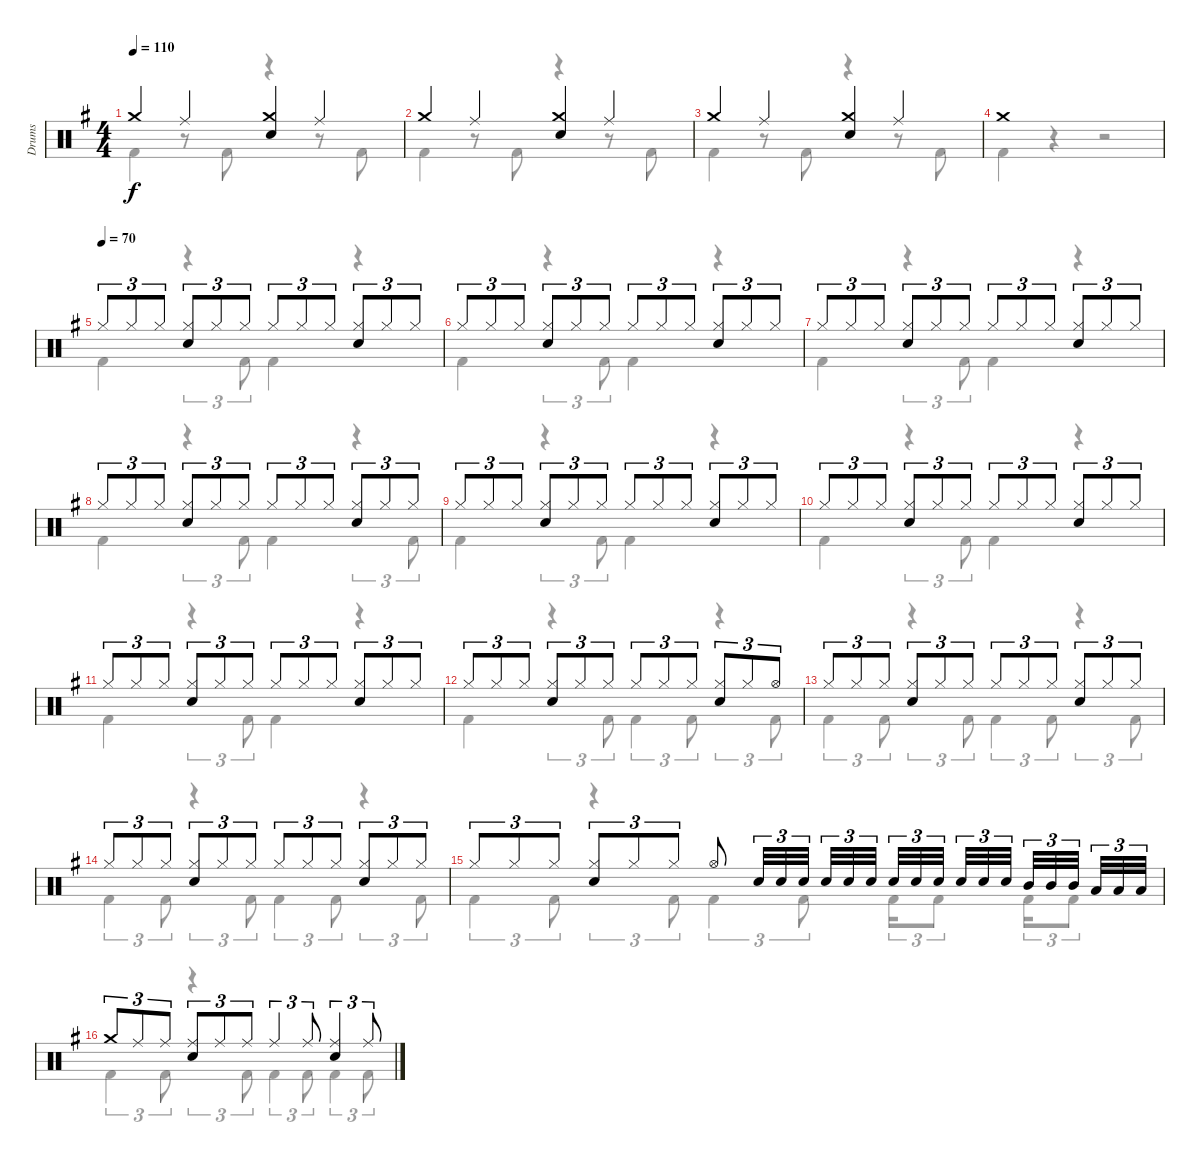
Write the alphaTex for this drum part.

\track ("Drums" "Drums") {instrument percussion}
\staff {score}
\articulation defaults
\voice
\ts (4 4)
\tempo 110
\clef neutral
\ks g "Crash medium (hit)".4{dy f} "Ride (middle)".4
("Crash medium (hit)" "Snare (hit) 2").4 "Ride (middle)".4 |
"Crash medium (hit)".4 "Ride (middle)".4 ("Crash medium (hit)" "Snare (hit) 2").4 "Ride (middle)".4 |
"Crash medium (hit)".4 "Ride (middle)".4 ("Crash medium (hit)" "Snare (hit) 2").4 "Ride (middle)".4 |
"Crash medium (hit)".1 |
\tempo (70)
"Hi-Hat (closed)".8{tu (3 2)} "Hi-Hat (closed)".8{tu (3 2)} "Hi-Hat (closed)".8{tu (3 2)} ("Hi-Hat (closed)" "Snare (hit) 2").8{tu (3 2)} "Hi-Hat (closed)".8{tu (3 2)} "Hi-Hat (closed)".8{tu (3 2)} "Hi-Hat (closed)".8{tu (3 2)} "Hi-Hat (closed)".8{tu (3 2)} "Hi-Hat (closed)".8{tu (3 2)} ("Hi-Hat (closed)" "Snare (hit) 2").8{tu (3 2)} "Hi-Hat (closed)".8{tu (3 2)} "Hi-Hat (closed)".8{tu (3 2)} |
"Hi-Hat (closed)".8{tu (3 2)} "Hi-Hat (closed)".8{tu (3 2)} "Hi-Hat (closed)".8{tu (3 2)} ("Hi-Hat (closed)" "Snare (hit) 2").8{tu (3 2)} "Hi-Hat (closed)".8{tu (3 2)} "Hi-Hat (closed)".8{tu (3 2)} "Hi-Hat (closed)".8{tu (3 2)} "Hi-Hat (closed)".8{tu (3 2)} "Hi-Hat (closed)".8{tu (3 2)} ("Hi-Hat (closed)" "Snare (hit) 2").8{tu (3 2)} "Hi-Hat (closed)".8{tu (3 2)} "Hi-Hat (closed)".8{tu (3 2)} |
"Hi-Hat (closed)".8{tu (3 2)} "Hi-Hat (closed)".8{tu (3 2)} "Hi-Hat (closed)".8{tu (3 2)} ("Hi-Hat (closed)" "Snare (hit) 2").8{tu (3 2)} "Hi-Hat (closed)".8{tu (3 2)} "Hi-Hat (closed)".8{tu (3 2)} "Hi-Hat (closed)".8{tu (3 2)} "Hi-Hat (closed)".8{tu (3 2)} "Hi-Hat (closed)".8{tu (3 2)} ("Hi-Hat (closed)" "Snare (hit) 2").8{tu (3 2)} "Hi-Hat (closed)".8{tu (3 2)} "Hi-Hat (closed)".8{tu (3 2)} |
"Hi-Hat (closed)".8{tu (3 2)} "Hi-Hat (closed)".8{tu (3 2)} "Hi-Hat (closed)".8{tu (3 2)} ("Hi-Hat (closed)" "Snare (hit) 2").8{tu (3 2)} "Hi-Hat (closed)".8{tu (3 2)} "Hi-Hat (closed)".8{tu (3 2)} "Hi-Hat (closed)".8{tu (3 2)} "Hi-Hat (closed)".8{tu (3 2)} "Hi-Hat (closed)".8{tu (3 2)} ("Hi-Hat (closed)" "Snare (hit) 2").8{tu (3 2)} "Hi-Hat (closed)".8{tu (3 2)} "Hi-Hat (closed)".8{tu (3 2)} |
"Hi-Hat (closed)".8{tu (3 2)} "Hi-Hat (closed)".8{tu (3 2)} "Hi-Hat (closed)".8{tu (3 2)} ("Hi-Hat (closed)" "Snare (hit) 2").8{tu (3 2)} "Hi-Hat (closed)".8{tu (3 2)} "Hi-Hat (closed)".8{tu (3 2)} "Hi-Hat (closed)".8{tu (3 2)} "Hi-Hat (closed)".8{tu (3 2)} "Hi-Hat (closed)".8{tu (3 2)} ("Hi-Hat (closed)" "Snare (hit) 2").8{tu (3 2)} "Hi-Hat (closed)".8{tu (3 2)} "Hi-Hat (closed)".8{tu (3 2)} |
"Hi-Hat (closed)".8{tu (3 2)} "Hi-Hat (closed)".8{tu (3 2)} "Hi-Hat (closed)".8{tu (3 2)} ("Hi-Hat (closed)" "Snare (hit) 2").8{tu (3 2)} "Hi-Hat (closed)".8{tu (3 2)} "Hi-Hat (closed)".8{tu (3 2)} "Hi-Hat (closed)".8{tu (3 2)} "Hi-Hat (closed)".8{tu (3 2)} "Hi-Hat (closed)".8{tu (3 2)} ("Hi-Hat (closed)" "Snare (hit) 2").8{tu (3 2)} "Hi-Hat (closed)".8{tu (3 2)} "Hi-Hat (closed)".8{tu (3 2)} |
"Hi-Hat (closed)".8{tu (3 2)} "Hi-Hat (closed)".8{tu (3 2)} "Hi-Hat (closed)".8{tu (3 2)} ("Hi-Hat (closed)" "Snare (hit) 2").8{tu (3 2)} "Hi-Hat (closed)".8{tu (3 2)} "Hi-Hat (closed)".8{tu (3 2)} "Hi-Hat (closed)".8{tu (3 2)} "Hi-Hat (closed)".8{tu (3 2)} "Hi-Hat (closed)".8{tu (3 2)} ("Hi-Hat (closed)" "Snare (hit) 2").8{tu (3 2)} "Hi-Hat (closed)".8{tu (3 2)} "Hi-Hat (closed)".8{tu (3 2)} |
"Hi-Hat (closed)".8{tu (3 2)} "Hi-Hat (closed)".8{tu (3 2)} "Hi-Hat (closed)".8{tu (3 2)} ("Hi-Hat (closed)" "Snare (hit) 2").8{tu (3 2)} "Hi-Hat (closed)".8{tu (3 2)} "Hi-Hat (closed)".8{tu (3 2)} "Hi-Hat (closed)".8{tu (3 2)} "Hi-Hat (closed)".8{tu (3 2)} "Hi-Hat (closed)".8{tu (3 2)} ("Hi-Hat (closed)" "Snare (hit) 2").8{tu (3 2)} "Hi-Hat (closed)".8{tu (3 2)} "Hi-Hat (open)".8{tu (3 2)} |
"Hi-Hat (closed)".8{tu (3 2)} "Hi-Hat (closed)".8{tu (3 2)} "Hi-Hat (closed)".8{tu (3 2)} ("Hi-Hat (closed)" "Snare (hit) 2").8{tu (3 2)} "Hi-Hat (closed)".8{tu (3 2)} "Hi-Hat (closed)".8{tu (3 2)} "Hi-Hat (closed)".8{tu (3 2)} "Hi-Hat (closed)".8{tu (3 2)} "Hi-Hat (closed)".8{tu (3 2)} ("Hi-Hat (closed)" "Snare (hit) 2").8{tu (3 2)} "Hi-Hat (closed)".8{tu (3 2)} "Hi-Hat (closed)".8{tu (3 2)} |
"Hi-Hat (closed)".8{tu (3 2)} "Hi-Hat (closed)".8{tu (3 2)} "Hi-Hat (closed)".8{tu (3 2)} ("Hi-Hat (closed)" "Snare (hit) 2").8{tu (3 2)} "Hi-Hat (closed)".8{tu (3 2)} "Hi-Hat (closed)".8{tu (3 2)} "Hi-Hat (closed)".8{tu (3 2)} "Hi-Hat (closed)".8{tu (3 2)} "Hi-Hat (closed)".8{tu (3 2)} ("Hi-Hat (closed)" "Snare (hit) 2").8{tu (3 2)} "Hi-Hat (closed)".8{tu (3 2)} "Hi-Hat (closed)".8{tu (3 2)} |
"Hi-Hat (closed)".8{tu (3 2)} "Hi-Hat (closed)".8{tu (3 2)} "Hi-Hat (closed)".8{tu (3 2)} ("Hi-Hat (closed)" "Snare (hit) 2").8{tu (3 2)} "Hi-Hat (closed)".8{tu (3 2)} "Hi-Hat (closed)".8{tu (3 2)} "Hi-Hat (open)".8 "Snare (hit) 2".32{tu (3 2)} "Snare (hit) 2".32{tu (3 2)} "Snare (hit) 2".32{tu (3 2) beam splitsecondary} "Snare (hit) 2".32{tu (3 2)} "Snare (hit) 2".32{tu (3 2)} "Snare (hit) 2".32{tu (3 2)} "Snare (hit) 2".32{tu (3 2)} "Snare (hit) 2".32{tu (3 2)} "Snare (hit) 2".32{tu (3 2) beam splitsecondary} "Snare (hit) 2".32{tu (3 2)} "Snare (hit) 2".32{tu (3 2)} "Snare (hit) 2".32{tu (3 2) beam splitsecondary} "Mid Tom (hit)".32{tu (3 2)} "Mid Tom (hit)".32{tu (3 2)} "Mid Tom (hit)".32{tu (3 2) beam splitsecondary} "Low Tom (hit)".32{tu (3 2)} "Low Tom (hit)".32{tu (3 2)} "Low Tom (hit)".32{tu (3 2)} |
"Crash medium (hit)".8{tu (3 2)} "Ride (middle)".8{tu (3 2)} "Ride (middle)".8{tu (3 2)} ("Ride (middle)" "Snare (hit) 2").8{tu (3 2)} "Ride (middle)".8{tu (3 2)} "Ride (middle)".8{tu (3 2)} "Ride (middle)".4{tu (3 2)} "Ride (middle)".8{tu (3 2)} ("Ride (middle)" "Snare (hit) 2").4{tu (3 2)} "Ride (middle)".8{tu (3 2)}
\voice
\clef neutral
\ottava regular
\simile none
\ks g "Kick (hit) 2".4{dy f}
r.8 "Kick (hit) 2".8 r.4 r.8 "Kick (hit) 2".8 |
"Kick (hit) 2".4 r.8 "Kick (hit) 2".8 r.4 r.8 "Kick (hit) 2".8 |
"Kick (hit) 2".4 r.8 "Kick (hit) 2".8 r.4 r.8 "Kick (hit) 2".8 |
"Kick (hit) 2".4 r.4 r.2 |
"Kick (hit) 2".4 r.4{tu (3 2)} "Kick (hit) 2".8{tu (3 2)} "Kick (hit) 2".4 r.4 |
"Kick (hit) 2".4 r.4{tu (3 2)} "Kick (hit) 2".8{tu (3 2)} "Kick (hit) 2".4 r.4 |
"Kick (hit) 2".4 r.4{tu (3 2)} "Kick (hit) 2".8{tu (3 2)} "Kick (hit) 2".4 r.4 |
"Kick (hit) 2".4 r.4{tu (3 2)} "Kick (hit) 2".8{tu (3 2)} "Kick (hit) 2".4 r.4{tu (3 2)} "Kick (hit) 2".8{tu (3 2)} |
"Kick (hit) 2".4 r.4{tu (3 2)} "Kick (hit) 2".8{tu (3 2)} "Kick (hit) 2".4 r.4 |
"Kick (hit) 2".4 r.4{tu (3 2)} "Kick (hit) 2".8{tu (3 2)} "Kick (hit) 2".4 r.4 |
"Kick (hit) 2".4 r.4{tu (3 2)} "Kick (hit) 2".8{tu (3 2)} "Kick (hit) 2".4 r.4 |
"Kick (hit) 2".4 r.4{tu (3 2)} "Kick (hit) 2".8{tu (3 2)} "Kick (hit) 2".4{tu (3 2)} "Kick (hit) 2".8{tu (3 2)} r.4{tu (3 2)} "Kick (hit) 2".8{tu (3 2)} |
"Kick (hit) 2".4{tu (3 2)} "Kick (hit) 2".8{tu (3 2)} r.4{tu (3 2)} "Kick (hit) 2".8{tu (3 2)} "Kick (hit) 2".4{tu (3 2)} "Kick (hit) 2".8{tu (3 2)} r.4{tu (3 2)} "Kick (hit) 2".8{tu (3 2)} |
"Kick (hit) 2".4{tu (3 2)} "Kick (hit) 2".8{tu (3 2)} r.4{tu (3 2)} "Kick (hit) 2".8{tu (3 2)} "Kick (hit) 2".4{tu (3 2)} "Kick (hit) 2".8{tu (3 2)} r.4{tu (3 2)} "Kick (hit) 2".8{tu (3 2)} |
"Kick (hit) 2".4{tu (3 2)} "Kick (hit) 2".8{tu (3 2)} r.4{tu (3 2)} "Kick (hit) 2".8{tu (3 2)} "Kick (hit) 2".4{tu (3 2)} "Kick (hit) 2".8{tu (3 2)} "Kick (hit) 2".16{tu (3 2)} "Kick (hit) 2".8{tu (3 2)} "Kick (hit) 2".16{tu (3 2)} "Kick (hit) 2".8{tu (3 2)} |
"Kick (hit) 2".4{tu (3 2)} "Kick (hit) 2".8{tu (3 2)} r.4{tu (3 2)} "Kick (hit) 2".8{tu (3 2)} "Kick (hit) 2".4{tu (3 2)} "Kick (hit) 2".8{tu (3 2)} "Kick (hit) 2".4{tu (3 2)} "Kick (hit) 2".8{tu (3 2)}
